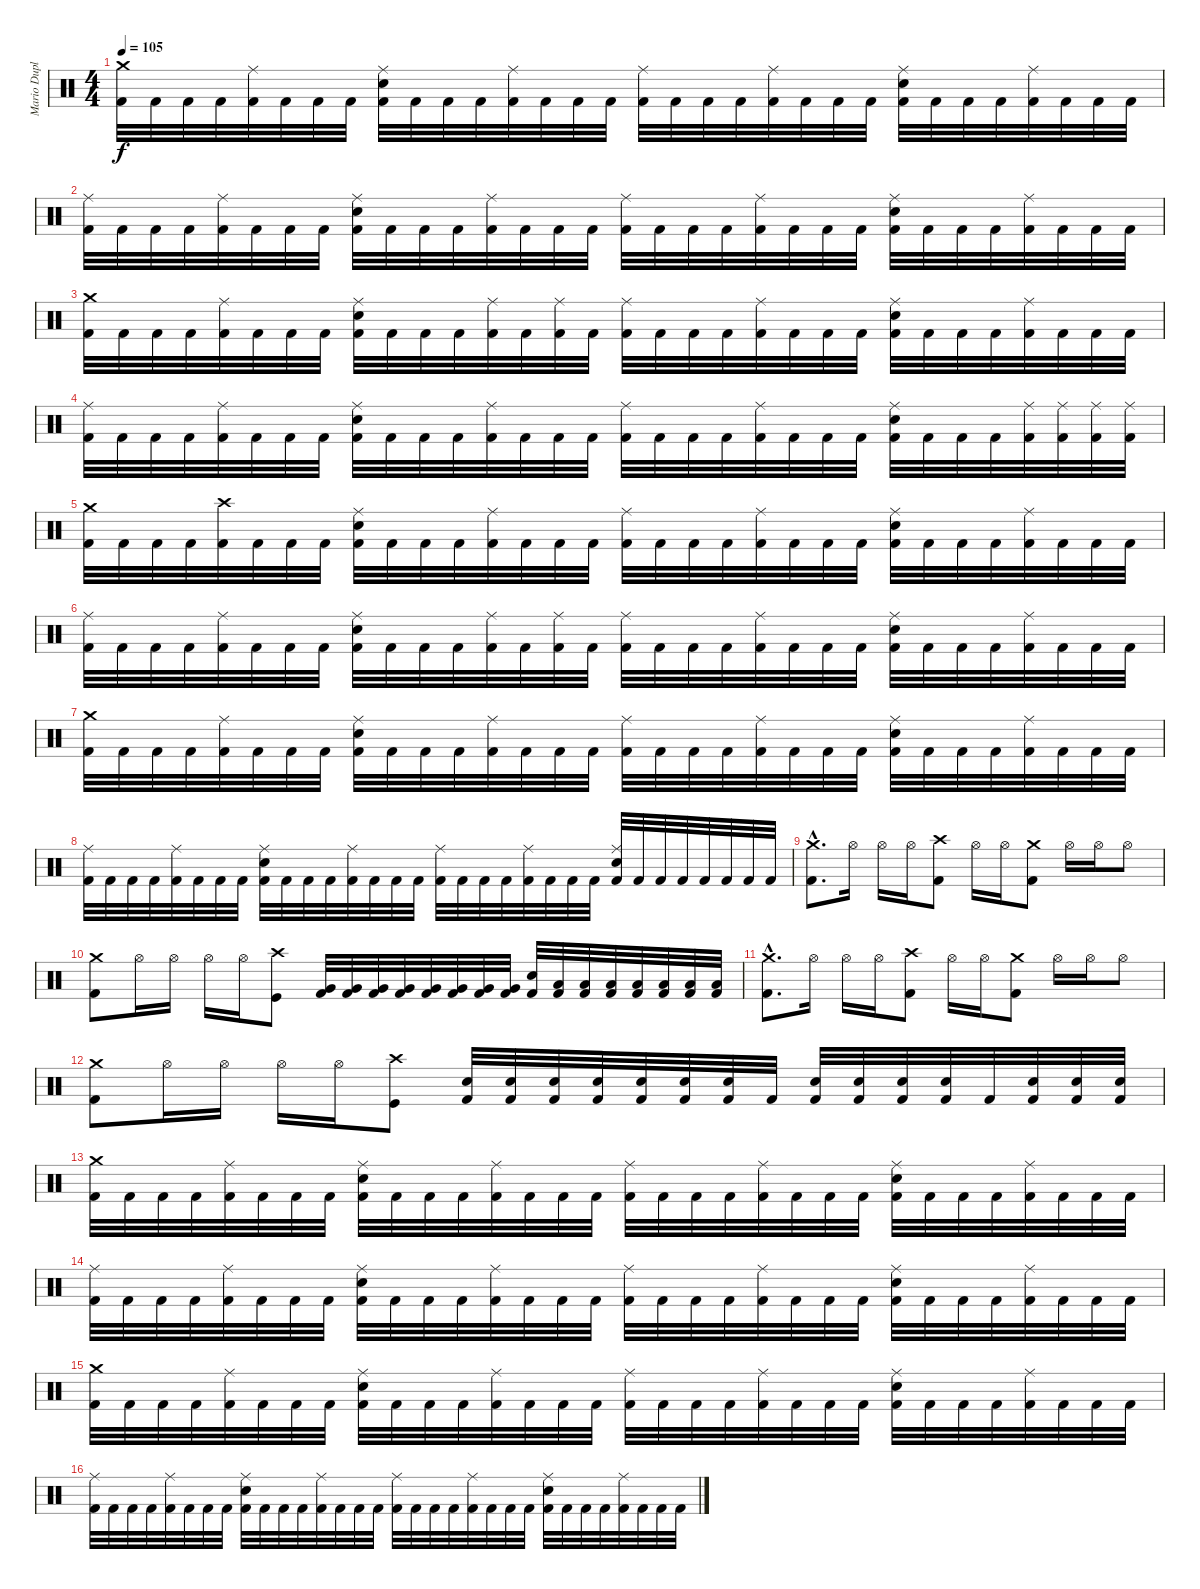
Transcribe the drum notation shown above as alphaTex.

\track ("Mario Duplantier" "Mario Dupl") {instrument percussion}
\staff {score}
\articulation defaults
\ts (4 4)
\tempo 105
\clef neutral
\ks c
("Crash medium (hit)" "Kick (hit) 2").32{dy f} "Kick (hit) 2".32 "Kick (hit) 2".32 "Kick (hit) 2".32 ("Ride (middle)" "Kick (hit) 2").32 "Kick (hit) 2".32 "Kick (hit) 2".32 "Kick (hit) 2".32 ("Ride (middle)" "Electric Snare (hit)" "Kick (hit) 2").32 "Kick (hit) 2".32 "Kick (hit) 2".32 "Kick (hit) 2".32 ("Ride (middle)" "Kick (hit) 2").32 "Kick (hit) 2".32 "Kick (hit) 2".32 "Kick (hit) 2".32 ("Ride (middle)" "Kick (hit) 2").32 "Kick (hit) 2".32 "Kick (hit) 2".32 "Kick (hit) 2".32 ("Ride (middle)" "Kick (hit) 2").32 "Kick (hit) 2".32 "Kick (hit) 2".32 "Kick (hit) 2".32 ("Ride (middle)" "Electric Snare (hit)" "Kick (hit) 2").32 "Kick (hit) 2".32 "Kick (hit) 2".32 "Kick (hit) 2".32 ("Ride (middle)" "Kick (hit) 2").32 "Kick (hit) 2".32 "Kick (hit) 2".32 "Kick (hit) 2".32 |
("Ride (middle)" "Kick (hit) 2").32 "Kick (hit) 2".32 "Kick (hit) 2".32 "Kick (hit) 2".32 ("Ride (middle)" "Kick (hit) 2").32 "Kick (hit) 2".32 "Kick (hit) 2".32 "Kick (hit) 2".32 ("Ride (middle)" "Electric Snare (hit)" "Kick (hit) 2").32 "Kick (hit) 2".32 "Kick (hit) 2".32 "Kick (hit) 2".32 ("Ride (middle)" "Kick (hit) 2").32 "Kick (hit) 2".32 "Kick (hit) 2".32 "Kick (hit) 2".32 ("Ride (middle)" "Kick (hit) 2").32 "Kick (hit) 2".32 "Kick (hit) 2".32 "Kick (hit) 2".32 ("Ride (middle)" "Kick (hit) 2").32 "Kick (hit) 2".32 "Kick (hit) 2".32 "Kick (hit) 2".32 ("Ride (middle)" "Electric Snare (hit)" "Kick (hit) 2").32 "Kick (hit) 2".32 "Kick (hit) 2".32 "Kick (hit) 2".32 ("Ride (middle)" "Kick (hit) 2").32 "Kick (hit) 2".32 "Kick (hit) 2".32 "Kick (hit) 2".32 |
("Crash medium (hit)" "Kick (hit) 2").32 "Kick (hit) 2".32 "Kick (hit) 2".32 "Kick (hit) 2".32 ("Ride (middle)" "Kick (hit) 2").32 "Kick (hit) 2".32 "Kick (hit) 2".32 "Kick (hit) 2".32 ("Ride (middle)" "Electric Snare (hit)" "Kick (hit) 2").32 "Kick (hit) 2".32 "Kick (hit) 2".32 "Kick (hit) 2".32 ("Ride (middle)" "Kick (hit) 2").32 "Kick (hit) 2".32 ("Ride (middle)" "Kick (hit) 2").32 "Kick (hit) 2".32 ("Ride (middle)" "Kick (hit) 2").32 "Kick (hit) 2".32 "Kick (hit) 2".32 "Kick (hit) 2".32 ("Ride (middle)" "Kick (hit) 2").32 "Kick (hit) 2".32 "Kick (hit) 2".32 "Kick (hit) 2".32 ("Ride (middle)" "Electric Snare (hit)" "Kick (hit) 2").32 "Kick (hit) 2".32 "Kick (hit) 2".32 "Kick (hit) 2".32 ("Ride (middle)" "Kick (hit) 2").32 "Kick (hit) 2".32 "Kick (hit) 2".32 "Kick (hit) 2".32 |
("Ride (middle)" "Kick (hit) 2").32 "Kick (hit) 2".32 "Kick (hit) 2".32 "Kick (hit) 2".32 ("Ride (middle)" "Kick (hit) 2").32 "Kick (hit) 2".32 "Kick (hit) 2".32 "Kick (hit) 2".32 ("Ride (middle)" "Electric Snare (hit)" "Kick (hit) 2").32 "Kick (hit) 2".32 "Kick (hit) 2".32 "Kick (hit) 2".32 ("Ride (middle)" "Kick (hit) 2").32 "Kick (hit) 2".32 "Kick (hit) 2".32 "Kick (hit) 2".32 ("Ride (middle)" "Kick (hit) 2").32 "Kick (hit) 2".32 "Kick (hit) 2".32 "Kick (hit) 2".32 ("Ride (middle)" "Kick (hit) 2").32 "Kick (hit) 2".32 "Kick (hit) 2".32 "Kick (hit) 2".32 ("Ride (middle)" "Electric Snare (hit)" "Kick (hit) 2").32 "Kick (hit) 2".32 "Kick (hit) 2".32 "Kick (hit) 2".32 ("Ride (middle)" "Kick (hit) 2").32 ("Ride (middle)" "Kick (hit) 2").32 ("Ride (middle)" "Kick (hit) 2").32 ("Ride (middle)" "Kick (hit) 2").32 |
("Crash medium (hit)" "Kick (hit) 2").32 "Kick (hit) 2".32 "Kick (hit) 2".32 "Kick (hit) 2".32 ("Crash high (hit)" "Kick (hit) 2").32 "Kick (hit) 2".32 "Kick (hit) 2".32 "Kick (hit) 2".32 ("Ride (middle)" "Electric Snare (hit)" "Kick (hit) 2").32 "Kick (hit) 2".32 "Kick (hit) 2".32 "Kick (hit) 2".32 ("Ride (middle)" "Kick (hit) 2").32 "Kick (hit) 2".32 "Kick (hit) 2".32 "Kick (hit) 2".32 ("Ride (middle)" "Kick (hit) 2").32 "Kick (hit) 2".32 "Kick (hit) 2".32 "Kick (hit) 2".32 ("Ride (middle)" "Kick (hit) 2").32 "Kick (hit) 2".32 "Kick (hit) 2".32 "Kick (hit) 2".32 ("Ride (middle)" "Electric Snare (hit)" "Kick (hit) 2").32 "Kick (hit) 2".32 "Kick (hit) 2".32 "Kick (hit) 2".32 ("Ride (middle)" "Kick (hit) 2").32 "Kick (hit) 2".32 "Kick (hit) 2".32 "Kick (hit) 2".32 |
("Ride (middle)" "Kick (hit) 2").32 "Kick (hit) 2".32 "Kick (hit) 2".32 "Kick (hit) 2".32 ("Ride (middle)" "Kick (hit) 2").32 "Kick (hit) 2".32 "Kick (hit) 2".32 "Kick (hit) 2".32 ("Ride (middle)" "Electric Snare (hit)" "Kick (hit) 2").32 "Kick (hit) 2".32 "Kick (hit) 2".32 "Kick (hit) 2".32 ("Ride (middle)" "Kick (hit) 2").32 "Kick (hit) 2".32 ("Ride (middle)" "Kick (hit) 2").32 "Kick (hit) 2".32 ("Ride (middle)" "Kick (hit) 2").32 "Kick (hit) 2".32 "Kick (hit) 2".32 "Kick (hit) 2".32 ("Ride (middle)" "Kick (hit) 2").32 "Kick (hit) 2".32 "Kick (hit) 2".32 "Kick (hit) 2".32 ("Ride (middle)" "Electric Snare (hit)" "Kick (hit) 2").32 "Kick (hit) 2".32 "Kick (hit) 2".32 "Kick (hit) 2".32 ("Ride (middle)" "Kick (hit) 2").32 "Kick (hit) 2".32 "Kick (hit) 2".32 "Kick (hit) 2".32 |
("Crash medium (hit)" "Kick (hit) 2").32 "Kick (hit) 2".32 "Kick (hit) 2".32 "Kick (hit) 2".32 ("Ride (middle)" "Kick (hit) 2").32 "Kick (hit) 2".32 "Kick (hit) 2".32 "Kick (hit) 2".32 ("Ride (middle)" "Electric Snare (hit)" "Kick (hit) 2").32 "Kick (hit) 2".32 "Kick (hit) 2".32 "Kick (hit) 2".32 ("Ride (middle)" "Kick (hit) 2").32 "Kick (hit) 2".32 "Kick (hit) 2".32 "Kick (hit) 2".32 ("Ride (middle)" "Kick (hit) 2").32 "Kick (hit) 2".32 "Kick (hit) 2".32 "Kick (hit) 2".32 ("Ride (middle)" "Kick (hit) 2").32 "Kick (hit) 2".32 "Kick (hit) 2".32 "Kick (hit) 2".32 ("Ride (middle)" "Electric Snare (hit)" "Kick (hit) 2").32 "Kick (hit) 2".32 "Kick (hit) 2".32 "Kick (hit) 2".32 ("Ride (middle)" "Kick (hit) 2").32 "Kick (hit) 2".32 "Kick (hit) 2".32 "Kick (hit) 2".32 |
("Ride (middle)" "Kick (hit) 2").32 "Kick (hit) 2".32 "Kick (hit) 2".32 "Kick (hit) 2".32 ("Ride (middle)" "Kick (hit) 2").32 "Kick (hit) 2".32 "Kick (hit) 2".32 "Kick (hit) 2".32 ("Ride (middle)" "Electric Snare (hit)" "Kick (hit) 2").32 "Kick (hit) 2".32 "Kick (hit) 2".32 "Kick (hit) 2".32 ("Ride (middle)" "Kick (hit) 2").32 "Kick (hit) 2".32 "Kick (hit) 2".32 "Kick (hit) 2".32 ("Ride (middle)" "Kick (hit) 2").32 "Kick (hit) 2".32 "Kick (hit) 2".32 "Kick (hit) 2".32 ("Ride (middle)" "Kick (hit) 2").32 "Kick (hit) 2".32 "Kick (hit) 2".32 "Kick (hit) 2".32 ("Ride (middle)" "Electric Snare (hit)" "Kick (hit) 2").32 "Kick (hit) 2".32 "Kick (hit) 2".32 "Kick (hit) 2".32 "Kick (hit) 2".32 "Kick (hit) 2".32 "Kick (hit) 2".32 "Kick (hit) 2".32 |
("Crash medium (hit)"{hac} "Kick (hit) 2"{hac}).8{d} "Hi-Hat (open)".16 "Hi-Hat (open)".16 "Hi-Hat (open)".16 ("Crash high (hit)" "Kick (hit) 2").8 "Hi-Hat (open)".16 "Hi-Hat (open)".16 ("Crash medium (hit)" "Kick (hit) 2").8 "Hi-Hat (open)".16 "Hi-Hat (open)".16 "Hi-Hat (open)".8 |
("Crash medium (hit)" "Kick (hit) 2").8 "Hi-Hat (open)".16 "Hi-Hat (open)".16 "Hi-Hat (open)".16 "Hi-Hat (open)".16 ("Crash high (hit)" "Kick (hit)").8 ("Very Low Tom (hit)" "Kick (hit) 2").32 ("Very Low Tom (hit)" "Kick (hit) 2").32 ("Very Low Tom (hit)" "Kick (hit) 2").32 ("Very Low Tom (hit)" "Kick (hit) 2").32 ("Very Low Tom (hit)" "Kick (hit) 2").32 ("Very Low Tom (hit)" "Kick (hit) 2").32 ("Very Low Tom (hit)" "Kick (hit) 2").32 ("Very Low Tom (hit)" "Kick (hit) 2").32 ("Electric Snare (hit)" "Kick (hit) 2").32 ("Low Floor Tom (hit)" "Kick (hit) 2").32 ("Low Floor Tom (hit)" "Kick (hit) 2").32 ("Low Floor Tom (hit)" "Kick (hit) 2").32 ("Low Floor Tom (hit)" "Kick (hit) 2").32 ("Low Floor Tom (hit)" "Kick (hit) 2").32 ("Low Floor Tom (hit)" "Kick (hit) 2").32 ("Low Floor Tom (hit)" "Kick (hit) 2").32 |
("Crash medium (hit)"{hac} "Kick (hit) 2"{hac}).8{d} "Hi-Hat (open)".16 "Hi-Hat (open)".16 "Hi-Hat (open)".16 ("Crash high (hit)" "Kick (hit) 2").8 "Hi-Hat (open)".16 "Hi-Hat (open)".16 ("Crash medium (hit)" "Kick (hit) 2").8 "Hi-Hat (open)".16 "Hi-Hat (open)".16 "Hi-Hat (open)".8 |
("Crash medium (hit)" "Kick (hit) 2").8 "Hi-Hat (open)".16 "Hi-Hat (open)".16 "Hi-Hat (open)".16 "Hi-Hat (open)".16 ("Crash high (hit)" "Kick (hit)").8 ("Electric Snare (hit)" "Kick (hit) 2").32 ("Electric Snare (hit)" "Kick (hit) 2").32 ("Electric Snare (hit)" "Kick (hit) 2").32 ("Electric Snare (hit)" "Kick (hit) 2").32 ("Electric Snare (hit)" "Kick (hit) 2").32 ("Electric Snare (hit)" "Kick (hit) 2").32 ("Electric Snare (hit)" "Kick (hit) 2").32 "Kick (hit) 2".32 ("Electric Snare (hit)" "Kick (hit) 2").32 ("Electric Snare (hit)" "Kick (hit) 2").32 ("Electric Snare (hit)" "Kick (hit) 2").32 ("Electric Snare (hit)" "Kick (hit) 2").32 "Kick (hit) 2".32 ("Electric Snare (hit)" "Kick (hit) 2").32 ("Electric Snare (hit)" "Kick (hit) 2").32 ("Electric Snare (hit)" "Kick (hit) 2").32 |
("Crash medium (hit)" "Kick (hit) 2").32 "Kick (hit) 2".32 "Kick (hit) 2".32 "Kick (hit) 2".32 ("Ride (middle)" "Kick (hit) 2").32 "Kick (hit) 2".32 "Kick (hit) 2".32 "Kick (hit) 2".32 ("Ride (middle)" "Electric Snare (hit)" "Kick (hit) 2").32 "Kick (hit) 2".32 "Kick (hit) 2".32 "Kick (hit) 2".32 ("Ride (middle)" "Kick (hit) 2").32 "Kick (hit) 2".32 "Kick (hit) 2".32 "Kick (hit) 2".32 ("Ride (middle)" "Kick (hit) 2").32 "Kick (hit) 2".32 "Kick (hit) 2".32 "Kick (hit) 2".32 ("Ride (middle)" "Kick (hit) 2").32 "Kick (hit) 2".32 "Kick (hit) 2".32 "Kick (hit) 2".32 ("Ride (middle)" "Electric Snare (hit)" "Kick (hit) 2").32 "Kick (hit) 2".32 "Kick (hit) 2".32 "Kick (hit) 2".32 ("Ride (middle)" "Kick (hit) 2").32 "Kick (hit) 2".32 "Kick (hit) 2".32 "Kick (hit) 2".32 |
("Ride (middle)" "Kick (hit) 2").32 "Kick (hit) 2".32 "Kick (hit) 2".32 "Kick (hit) 2".32 ("Ride (middle)" "Kick (hit) 2").32 "Kick (hit) 2".32 "Kick (hit) 2".32 "Kick (hit) 2".32 ("Ride (middle)" "Electric Snare (hit)" "Kick (hit) 2").32 "Kick (hit) 2".32 "Kick (hit) 2".32 "Kick (hit) 2".32 ("Ride (middle)" "Kick (hit) 2").32 "Kick (hit) 2".32 "Kick (hit) 2".32 "Kick (hit) 2".32 ("Ride (middle)" "Kick (hit) 2").32 "Kick (hit) 2".32 "Kick (hit) 2".32 "Kick (hit) 2".32 ("Ride (middle)" "Kick (hit) 2").32 "Kick (hit) 2".32 "Kick (hit) 2".32 "Kick (hit) 2".32 ("Ride (middle)" "Electric Snare (hit)" "Kick (hit) 2").32 "Kick (hit) 2".32 "Kick (hit) 2".32 "Kick (hit) 2".32 ("Ride (middle)" "Kick (hit) 2").32 "Kick (hit) 2".32 "Kick (hit) 2".32 "Kick (hit) 2".32 |
("Crash medium (hit)" "Kick (hit) 2").32 "Kick (hit) 2".32 "Kick (hit) 2".32 "Kick (hit) 2".32 ("Ride (middle)" "Kick (hit) 2").32 "Kick (hit) 2".32 "Kick (hit) 2".32 "Kick (hit) 2".32 ("Ride (middle)" "Electric Snare (hit)" "Kick (hit) 2").32 "Kick (hit) 2".32 "Kick (hit) 2".32 "Kick (hit) 2".32 ("Ride (middle)" "Kick (hit) 2").32 "Kick (hit) 2".32 "Kick (hit) 2".32 "Kick (hit) 2".32 ("Ride (middle)" "Kick (hit) 2").32 "Kick (hit) 2".32 "Kick (hit) 2".32 "Kick (hit) 2".32 ("Ride (middle)" "Kick (hit) 2").32 "Kick (hit) 2".32 "Kick (hit) 2".32 "Kick (hit) 2".32 ("Ride (middle)" "Electric Snare (hit)" "Kick (hit) 2").32 "Kick (hit) 2".32 "Kick (hit) 2".32 "Kick (hit) 2".32 ("Ride (middle)" "Kick (hit) 2").32 "Kick (hit) 2".32 "Kick (hit) 2".32 "Kick (hit) 2".32 |
("Ride (middle)" "Kick (hit) 2").32 "Kick (hit) 2".32 "Kick (hit) 2".32 "Kick (hit) 2".32 ("Ride (middle)" "Kick (hit) 2").32 "Kick (hit) 2".32 "Kick (hit) 2".32 "Kick (hit) 2".32 ("Ride (middle)" "Electric Snare (hit)" "Kick (hit) 2").32 "Kick (hit) 2".32 "Kick (hit) 2".32 "Kick (hit) 2".32 ("Ride (middle)" "Kick (hit) 2").32 "Kick (hit) 2".32 "Kick (hit) 2".32 "Kick (hit) 2".32 ("Ride (middle)" "Kick (hit) 2").32 "Kick (hit) 2".32 "Kick (hit) 2".32 "Kick (hit) 2".32 ("Ride (middle)" "Kick (hit) 2").32 "Kick (hit) 2".32 "Kick (hit) 2".32 "Kick (hit) 2".32 ("Ride (middle)" "Electric Snare (hit)" "Kick (hit) 2").32 "Kick (hit) 2".32 "Kick (hit) 2".32 "Kick (hit) 2".32 ("Ride (middle)" "Kick (hit) 2").32 "Kick (hit) 2".32 "Kick (hit) 2".32 "Kick (hit) 2".32
